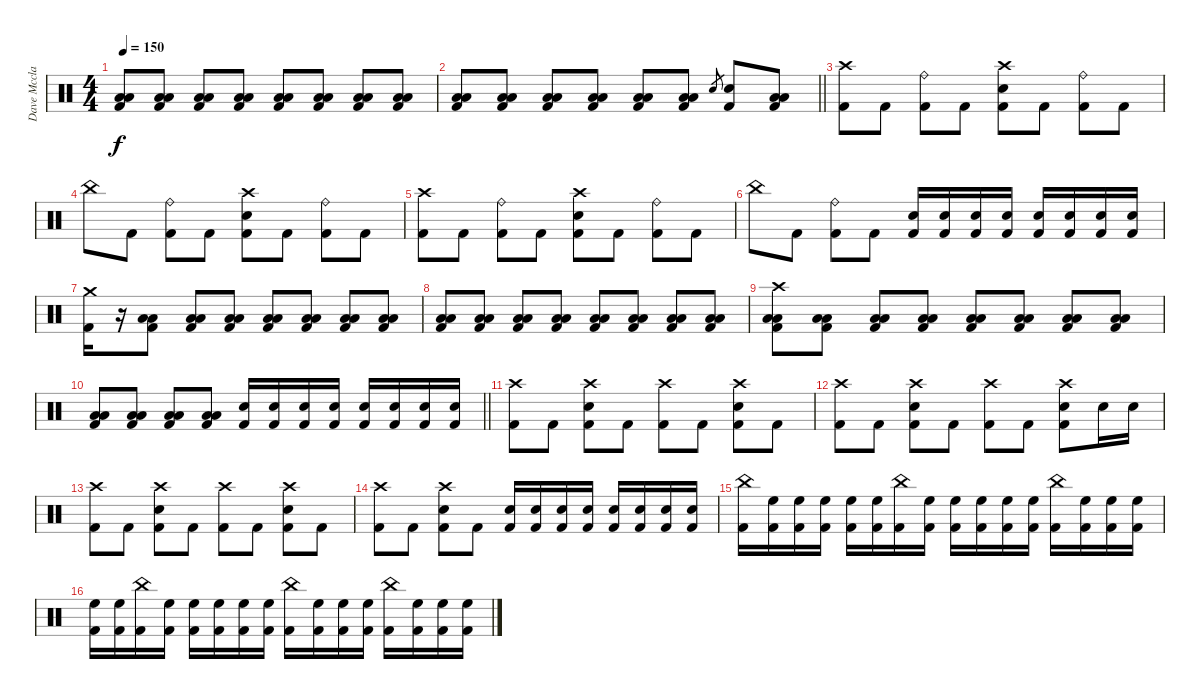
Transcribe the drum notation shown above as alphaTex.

\track ("Dave Mcclain" "Dave Mccla") {instrument percussion}
\staff {score}
\articulation defaults
\ts (4 4)
\tempo 150
\clef neutral
\ks c
("Low Tom (hit)" "Low Floor Tom (hit)" "Kick (hit) 2").8{dy f} ("Low Tom (hit)" "Low Floor Tom (hit)" "Kick (hit) 2").8 ("Low Tom (hit)" "Low Floor Tom (hit)" "Kick (hit) 2").8 ("Low Tom (hit)" "Low Floor Tom (hit)" "Kick (hit) 2").8 ("Low Tom (hit)" "Low Floor Tom (hit)" "Kick (hit) 2").8 ("Low Tom (hit)" "Low Floor Tom (hit)" "Kick (hit) 2").8 ("Low Tom (hit)" "Low Floor Tom (hit)" "Kick (hit) 2").8 ("Low Tom (hit)" "Low Floor Tom (hit)" "Kick (hit) 2").8 |
\barLineRight lightlight
("Low Tom (hit)" "Low Floor Tom (hit)" "Kick (hit) 2").8 ("Low Tom (hit)" "Low Floor Tom (hit)" "Kick (hit) 2").8 ("Low Tom (hit)" "Low Floor Tom (hit)" "Kick (hit) 2").8 ("Low Tom (hit)" "Low Floor Tom (hit)" "Kick (hit) 2").8 ("Low Tom (hit)" "Low Floor Tom (hit)" "Kick (hit) 2").8 ("Low Tom (hit)" "Low Floor Tom (hit)" "Kick (hit) 2").8 "Electric Snare (hit)".8{gr} ("Electric Snare (hit)" "Kick (hit) 2").8 ("Low Tom (hit)" "Low Floor Tom (hit)" "Kick (hit) 2").8 |
\section ("" "")
("Crash high (hit)" "Kick (hit) 2").8 "Kick (hit) 2".8 ("Ride (bell)" "Kick (hit) 2").8 "Kick (hit) 2".8 ("Crash high (hit)" "Electric Snare (hit)" "Kick (hit) 2").8 "Kick (hit) 2".8 ("Ride (bell)" "Kick (hit) 2").8 "Kick (hit) 2".8 |
"China (hit)".8 "Kick (hit) 2".8 ("Ride (bell)" "Kick (hit) 2").8 "Kick (hit) 2".8 ("Crash high (hit)" "Electric Snare (hit)" "Kick (hit) 2").8 "Kick (hit) 2".8 ("Ride (bell)" "Kick (hit) 2").8 "Kick (hit) 2".8 |
("Crash high (hit)" "Kick (hit) 2").8 "Kick (hit) 2".8 ("Ride (bell)" "Kick (hit) 2").8 "Kick (hit) 2".8 ("Crash high (hit)" "Electric Snare (hit)" "Kick (hit) 2").8 "Kick (hit) 2".8 ("Ride (bell)" "Kick (hit) 2").8 "Kick (hit) 2".8 |
"China (hit)".8 "Kick (hit) 2".8 ("Ride (bell)" "Kick (hit) 2").8 "Kick (hit) 2".8 ("Electric Snare (hit)" "Kick (hit) 2").16 ("Electric Snare (hit)" "Kick (hit) 2").16 ("Electric Snare (hit)" "Kick (hit) 2").16 ("Electric Snare (hit)" "Kick (hit) 2").16 ("Electric Snare (hit)" "Kick (hit) 2").16 ("Electric Snare (hit)" "Kick (hit) 2").16 ("Electric Snare (hit)" "Kick (hit) 2").16 ("Electric Snare (hit)" "Kick (hit) 2").16 |
("Crash medium (hit)" "Kick (hit) 2").16 r.16 ("Low Tom (hit)" "Low Floor Tom (hit)" "Kick (hit) 2").8 ("Low Tom (hit)" "Low Floor Tom (hit)" "Kick (hit) 2").8 ("Low Tom (hit)" "Low Floor Tom (hit)" "Kick (hit) 2").8 ("Low Tom (hit)" "Low Floor Tom (hit)" "Kick (hit) 2").8 ("Low Tom (hit)" "Low Floor Tom (hit)" "Kick (hit) 2").8 ("Low Tom (hit)" "Low Floor Tom (hit)" "Kick (hit) 2").8 ("Low Tom (hit)" "Low Floor Tom (hit)" "Kick (hit) 2").8 |
("Low Tom (hit)" "Low Floor Tom (hit)" "Kick (hit) 2").8 ("Low Tom (hit)" "Low Floor Tom (hit)" "Kick (hit) 2").8 ("Low Tom (hit)" "Low Floor Tom (hit)" "Kick (hit) 2").8 ("Low Tom (hit)" "Low Floor Tom (hit)" "Kick (hit) 2").8 ("Low Tom (hit)" "Low Floor Tom (hit)" "Kick (hit) 2").8 ("Low Tom (hit)" "Low Floor Tom (hit)" "Kick (hit) 2").8 ("Low Tom (hit)" "Low Floor Tom (hit)" "Kick (hit) 2").8 ("Low Tom (hit)" "Low Floor Tom (hit)" "Kick (hit) 2").8 |
("Crash high (hit)" "Low Tom (hit)" "Low Floor Tom (hit)" "Kick (hit) 2").8 ("Low Tom (hit)" "Low Floor Tom (hit)" "Kick (hit) 2").8 ("Low Tom (hit)" "Low Floor Tom (hit)" "Kick (hit) 2").8 ("Low Tom (hit)" "Low Floor Tom (hit)" "Kick (hit) 2").8 ("Low Tom (hit)" "Low Floor Tom (hit)" "Kick (hit) 2").8 ("Low Tom (hit)" "Low Floor Tom (hit)" "Kick (hit) 2").8 ("Low Tom (hit)" "Low Floor Tom (hit)" "Kick (hit) 2").8 ("Low Tom (hit)" "Low Floor Tom (hit)" "Kick (hit) 2").8 |
\barLineRight lightlight
("Low Tom (hit)" "Low Floor Tom (hit)" "Kick (hit) 2").8 ("Low Tom (hit)" "Low Floor Tom (hit)" "Kick (hit) 2").8 ("Low Tom (hit)" "Low Floor Tom (hit)" "Kick (hit) 2").8 ("Low Tom (hit)" "Low Floor Tom (hit)" "Kick (hit) 2").8 ("Electric Snare (hit)" "Kick (hit) 2").16 ("Electric Snare (hit)" "Kick (hit) 2").16 ("Electric Snare (hit)" "Kick (hit) 2").16 ("Electric Snare (hit)" "Kick (hit) 2").16 ("Electric Snare (hit)" "Kick (hit) 2").16 ("Electric Snare (hit)" "Kick (hit) 2").16 ("Electric Snare (hit)" "Kick (hit) 2").16 ("Electric Snare (hit)" "Kick (hit) 2").16 |
\section ("" "")
("Crash high (hit)" "Kick (hit) 2").8 "Kick (hit) 2".8 ("Crash high (hit)" "Electric Snare (hit)" "Kick (hit) 2").8 "Kick (hit) 2".8 ("Crash high (hit)" "Kick (hit) 2").8 "Kick (hit) 2".8 ("Crash high (hit)" "Electric Snare (hit)" "Kick (hit) 2").8 "Kick (hit) 2".8 |
("Crash high (hit)" "Kick (hit) 2").8 "Kick (hit) 2".8 ("Crash high (hit)" "Electric Snare (hit)" "Kick (hit) 2").8 "Kick (hit) 2".8 ("Crash high (hit)" "Kick (hit) 2").8 "Kick (hit) 2".8 ("Crash high (hit)" "Electric Snare (hit)" "Kick (hit) 2").8 "Electric Snare (hit)".16 "Electric Snare (hit)".16 |
("Crash high (hit)" "Kick (hit) 2").8 "Kick (hit) 2".8 ("Crash high (hit)" "Electric Snare (hit)" "Kick (hit) 2").8 "Kick (hit) 2".8 ("Crash high (hit)" "Kick (hit) 2").8 "Kick (hit) 2".8 ("Crash high (hit)" "Electric Snare (hit)" "Kick (hit) 2").8 "Kick (hit) 2".8 |
("Crash high (hit)" "Kick (hit) 2").8 "Kick (hit) 2".8 ("Crash high (hit)" "Electric Snare (hit)" "Kick (hit) 2").8 "Kick (hit) 2".8 ("Electric Snare (hit)" "Kick (hit) 2").16 ("Electric Snare (hit)" "Kick (hit) 2").16 ("Electric Snare (hit)" "Kick (hit) 2").16 ("Electric Snare (hit)" "Kick (hit) 2").16 ("Electric Snare (hit)" "Kick (hit) 2").16 ("Electric Snare (hit)" "Kick (hit) 2").16 ("Electric Snare (hit)" "Kick (hit) 2").16 ("Electric Snare (hit)" "Kick (hit) 2").16 |
("China (hit)" "Kick (hit) 2").16 ("High Floor Tom (hit)" "Kick (hit) 2").16 ("High Floor Tom (hit)" "Kick (hit) 2").16 ("High Floor Tom (hit)" "Kick (hit) 2").16 ("High Floor Tom (hit)" "Kick (hit) 2").16 ("High Floor Tom (hit)" "Kick (hit) 2").16 ("China (hit)" "Kick (hit) 2").16 ("High Floor Tom (hit)" "Kick (hit) 2").16 ("High Floor Tom (hit)" "Kick (hit) 2").16 ("High Floor Tom (hit)" "Kick (hit) 2").16 ("High Floor Tom (hit)" "Kick (hit) 2").16 ("High Floor Tom (hit)" "Kick (hit) 2").16 ("China (hit)" "Kick (hit) 2").16 ("High Floor Tom (hit)" "Kick (hit) 2").16 ("High Floor Tom (hit)" "Kick (hit) 2").16 ("High Floor Tom (hit)" "Kick (hit) 2").16 |
("High Floor Tom (hit)" "Kick (hit) 2").16 ("High Floor Tom (hit)" "Kick (hit) 2").16 ("China (hit)" "Kick (hit) 2").16 ("High Floor Tom (hit)" "Kick (hit) 2").16 ("High Floor Tom (hit)" "Kick (hit) 2").16 ("High Floor Tom (hit)" "Kick (hit) 2").16 ("High Floor Tom (hit)" "Kick (hit) 2").16 ("High Floor Tom (hit)" "Kick (hit) 2").16 ("China (hit)" "Kick (hit) 2").16 ("High Floor Tom (hit)" "Kick (hit) 2").16 ("High Floor Tom (hit)" "Kick (hit) 2").16 ("High Floor Tom (hit)" "Kick (hit) 2").16 ("China (hit)" "Kick (hit) 2").16 ("High Floor Tom (hit)" "Kick (hit) 2").16 ("High Floor Tom (hit)" "Kick (hit) 2").16 ("High Floor Tom (hit)" "Kick (hit) 2").16
